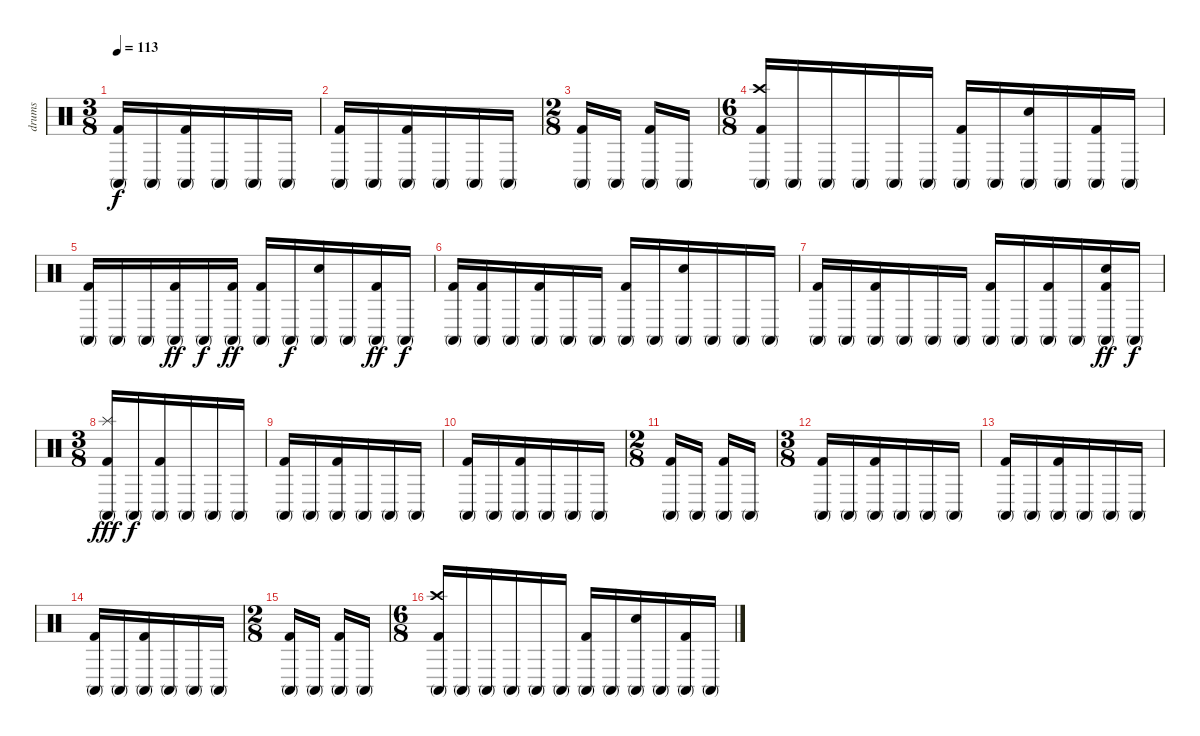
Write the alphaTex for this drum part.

\track ("drums" "drums") {instrument percussion}
\staff {score}
\articulation defaults
\ts (3 8)
\tempo 113
\clef neutral
\ks c
("Conga high (mute)" "Kick (hit) 2").16{dy f} "Conga high (mute)".16 ("Conga high (mute)" "Kick (hit) 2").16 "Conga high (mute)".16 "Conga high (mute)".16 "Conga high (mute)".16 |
("Conga high (mute)" "Kick (hit) 2").16 "Conga high (mute)".16 ("Conga high (mute)" "Kick (hit) 2").16 "Conga high (mute)".16 "Conga high (mute)".16 "Conga high (mute)".16 |
\ts (2 8)
("Conga high (mute)" "Kick (hit) 2").16 "Conga high (mute)".16 ("Conga high (mute)" "Kick (hit) 2").16 "Conga high (mute)".16 |
\ts (6 8)
("Crash high (hit)" "Conga high (mute)" "Kick (hit) 2").16 "Conga high (mute)".16 "Conga high (mute)".16 "Conga high (mute)".16 "Conga high (mute)".16 "Conga high (mute)".16 ("Conga high (mute)" "Kick (hit) 2").16 "Conga high (mute)".16 ("Conga high (mute)" "Electric Snare (hit)").16 "Conga high (mute)".16 ("Conga high (mute)" "Kick (hit) 2").16 "Conga high (mute)".16 |
("Conga high (mute)" "Kick (hit) 2").16 "Conga high (mute)".16 "Conga high (mute)".16 ("Conga high (mute)" "Kick (hit) 2").16{dy ff} "Conga high (mute)".16{dy f} ("Conga high (mute)" "Kick (hit) 2").16{dy ff} ("Conga high (mute)" "Kick (hit) 2").16 "Conga high (mute)".16{dy f} ("Conga high (mute)" "Electric Snare (hit)").16 "Conga high (mute)".16 ("Conga high (mute)" "Kick (hit) 2").16{dy ff} "Conga high (mute)".16{dy f} |
("Conga high (mute)" "Kick (hit) 2").16 ("Conga high (mute)" "Kick (hit) 2").16 "Conga high (mute)".16 ("Conga high (mute)" "Kick (hit) 2").16 "Conga high (mute)".16 "Conga high (mute)".16 ("Conga high (mute)" "Kick (hit) 2").16 "Conga high (mute)".16 ("Conga high (mute)" "Electric Snare (hit)").16 "Conga high (mute)".16 "Conga high (mute)".16 "Conga high (mute)".16 |
("Conga high (mute)" "Kick (hit) 2").16 "Conga high (mute)".16 ("Conga high (mute)" "Kick (hit) 2").16 "Conga high (mute)".16 "Conga high (mute)".16 "Conga high (mute)".16 ("Conga high (mute)" "Kick (hit) 2").16 "Conga high (mute)".16 ("Conga high (mute)" "Kick (hit) 2").16 "Conga high (mute)".16 ("Electric Snare (hit)" "Conga high (mute)" "Kick (hit) 2").16{dy ff} "Conga high (mute)".16{dy f} |
\ts (3 8)
("Splash (hit)" "Conga high (mute)" "Kick (hit) 2").16{dy fff} "Conga high (mute)".16{dy f} ("Conga high (mute)" "Kick (hit) 2").16 "Conga high (mute)".16 "Conga high (mute)".16 "Conga high (mute)".16 |
("Conga high (mute)" "Kick (hit) 2").16 "Conga high (mute)".16 ("Conga high (mute)" "Kick (hit) 2").16 "Conga high (mute)".16 "Conga high (mute)".16 "Conga high (mute)".16 |
("Conga high (mute)" "Kick (hit) 2").16 "Conga high (mute)".16 ("Conga high (mute)" "Kick (hit) 2").16 "Conga high (mute)".16 "Conga high (mute)".16 "Conga high (mute)".16 |
\ts (2 8)
("Conga high (mute)" "Kick (hit) 2").16 "Conga high (mute)".16 ("Conga high (mute)" "Kick (hit) 2").16 "Conga high (mute)".16 |
\ts (3 8)
("Conga high (mute)" "Kick (hit) 2").16 "Conga high (mute)".16 ("Conga high (mute)" "Kick (hit) 2").16 "Conga high (mute)".16 "Conga high (mute)".16 "Conga high (mute)".16 |
("Conga high (mute)" "Kick (hit) 2").16 "Conga high (mute)".16 ("Conga high (mute)" "Kick (hit) 2").16 "Conga high (mute)".16 "Conga high (mute)".16 "Conga high (mute)".16 |
("Conga high (mute)" "Kick (hit) 2").16 "Conga high (mute)".16 ("Conga high (mute)" "Kick (hit) 2").16 "Conga high (mute)".16 "Conga high (mute)".16 "Conga high (mute)".16 |
\ts (2 8)
("Conga high (mute)" "Kick (hit) 2").16 "Conga high (mute)".16 ("Conga high (mute)" "Kick (hit) 2").16 "Conga high (mute)".16 |
\ts (6 8)
("Crash high (hit)" "Conga high (mute)" "Kick (hit) 2").16 "Conga high (mute)".16 "Conga high (mute)".16 "Conga high (mute)".16 "Conga high (mute)".16 "Conga high (mute)".16 ("Conga high (mute)" "Kick (hit) 2").16 "Conga high (mute)".16 ("Conga high (mute)" "Electric Snare (hit)").16 "Conga high (mute)".16 ("Conga high (mute)" "Kick (hit) 2").16 "Conga high (mute)".16
